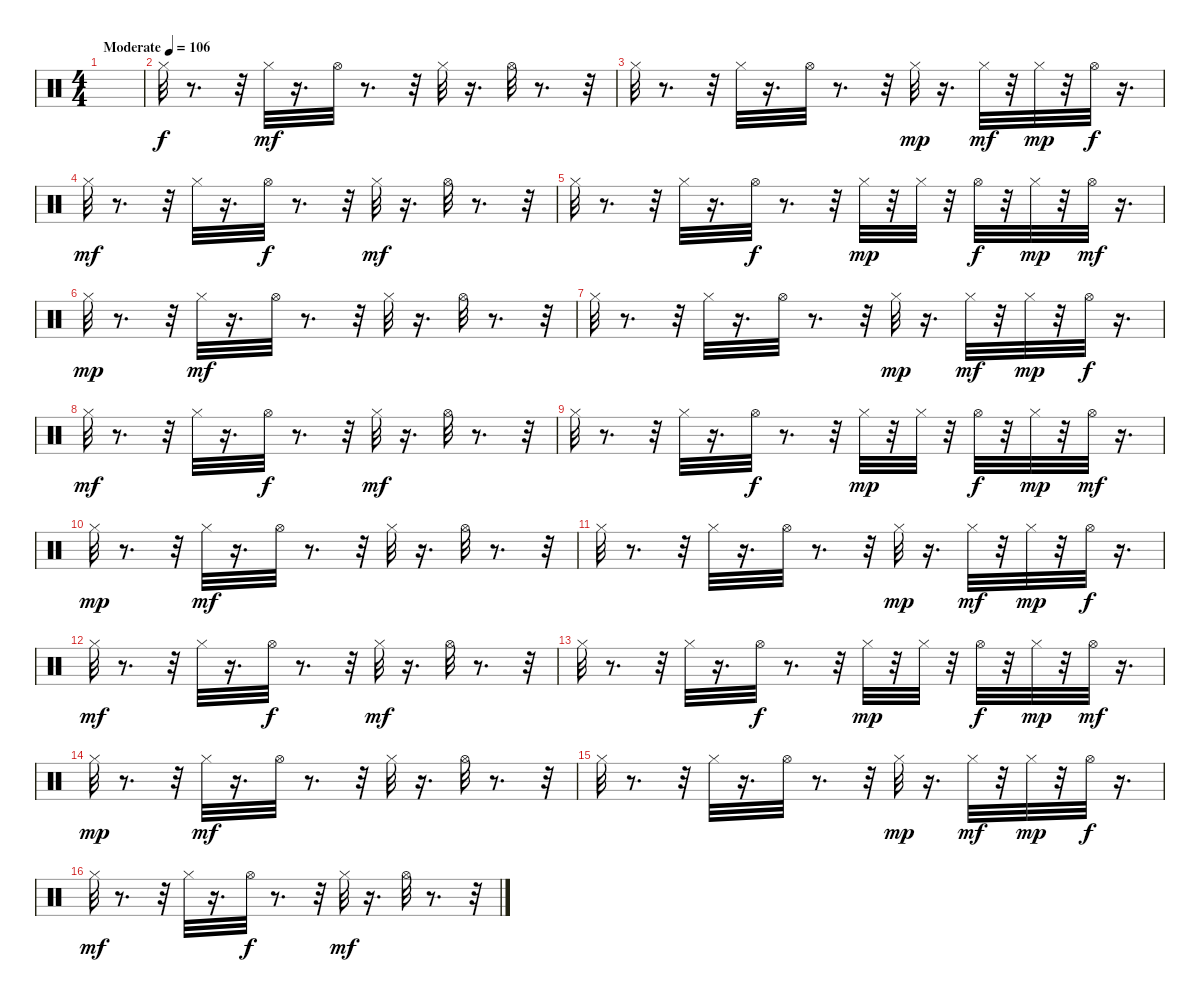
\track "" {instrument percussion}
\staff {score}
\articulation defaults
\ts (4 4)
\tempo (106 "Moderate")
\clef neutral
\ks c
|
"Hi-Hat (closed)".32 r.8{d} r.32 "Hi-Hat (closed)".32{dy mf} r.16{d} "Hi-Hat (open)".32 r.8{d} r.32 "Hi-Hat (closed)".32 r.16{d} "Hi-Hat (open)".32 r.8{d} r.32 |
"Hi-Hat (closed)".32 r.8{d} r.32 "Hi-Hat (closed)".32 r.16{d} "Hi-Hat (open)".32 r.8{d} r.32 "Hi-Hat (closed)".32{dy mp} r.16{d} "Hi-Hat (closed)".32{dy mf} r.32 "Hi-Hat (closed)".32{dy mp} r.32 "Hi-Hat (open)".32{dy f} r.16{d} |
"Hi-Hat (closed)".32{dy mf} r.8{d} r.32 "Hi-Hat (closed)".32 r.16{d} "Hi-Hat (open)".32{dy f} r.8{d} r.32 "Hi-Hat (closed)".32{dy mf} r.16{d} "Hi-Hat (open)".32 r.8{d} r.32 |
"Hi-Hat (closed)".32 r.8{d} r.32 "Hi-Hat (closed)".32 r.16{d} "Hi-Hat (open)".32{dy f} r.8{d} r.32 "Hi-Hat (closed)".32{dy mp} r.32 "Hi-Hat (closed)".32 r.32 "Hi-Hat (open)".32{dy f} r.32 "Hi-Hat (closed)".32{dy mp} r.32 "Hi-Hat (open)".32{dy mf} r.16{d} |
"Hi-Hat (closed)".32{dy mp} r.8{d} r.32 "Hi-Hat (closed)".32{dy mf} r.16{d} "Hi-Hat (open)".32 r.8{d} r.32 "Hi-Hat (closed)".32 r.16{d} "Hi-Hat (open)".32 r.8{d} r.32 |
"Hi-Hat (closed)".32 r.8{d} r.32 "Hi-Hat (closed)".32 r.16{d} "Hi-Hat (open)".32 r.8{d} r.32 "Hi-Hat (closed)".32{dy mp} r.16{d} "Hi-Hat (closed)".32{dy mf} r.32 "Hi-Hat (closed)".32{dy mp} r.32 "Hi-Hat (open)".32{dy f} r.16{d} |
"Hi-Hat (closed)".32{dy mf} r.8{d} r.32 "Hi-Hat (closed)".32 r.16{d} "Hi-Hat (open)".32{dy f} r.8{d} r.32 "Hi-Hat (closed)".32{dy mf} r.16{d} "Hi-Hat (open)".32 r.8{d} r.32 |
"Hi-Hat (closed)".32 r.8{d} r.32 "Hi-Hat (closed)".32 r.16{d} "Hi-Hat (open)".32{dy f} r.8{d} r.32 "Hi-Hat (closed)".32{dy mp} r.32 "Hi-Hat (closed)".32 r.32 "Hi-Hat (open)".32{dy f} r.32 "Hi-Hat (closed)".32{dy mp} r.32 "Hi-Hat (open)".32{dy mf} r.16{d} |
"Hi-Hat (closed)".32{dy mp} r.8{d} r.32 "Hi-Hat (closed)".32{dy mf} r.16{d} "Hi-Hat (open)".32 r.8{d} r.32 "Hi-Hat (closed)".32 r.16{d} "Hi-Hat (open)".32 r.8{d} r.32 |
"Hi-Hat (closed)".32 r.8{d} r.32 "Hi-Hat (closed)".32 r.16{d} "Hi-Hat (open)".32 r.8{d} r.32 "Hi-Hat (closed)".32{dy mp} r.16{d} "Hi-Hat (closed)".32{dy mf} r.32 "Hi-Hat (closed)".32{dy mp} r.32 "Hi-Hat (open)".32{dy f} r.16{d} |
"Hi-Hat (closed)".32{dy mf} r.8{d} r.32 "Hi-Hat (closed)".32 r.16{d} "Hi-Hat (open)".32{dy f} r.8{d} r.32 "Hi-Hat (closed)".32{dy mf} r.16{d} "Hi-Hat (open)".32 r.8{d} r.32 |
"Hi-Hat (closed)".32 r.8{d} r.32 "Hi-Hat (closed)".32 r.16{d} "Hi-Hat (open)".32{dy f} r.8{d} r.32 "Hi-Hat (closed)".32{dy mp} r.32 "Hi-Hat (closed)".32 r.32 "Hi-Hat (open)".32{dy f} r.32 "Hi-Hat (closed)".32{dy mp} r.32 "Hi-Hat (open)".32{dy mf} r.16{d} |
"Hi-Hat (closed)".32{dy mp} r.8{d} r.32 "Hi-Hat (closed)".32{dy mf} r.16{d} "Hi-Hat (open)".32 r.8{d} r.32 "Hi-Hat (closed)".32 r.16{d} "Hi-Hat (open)".32 r.8{d} r.32 |
"Hi-Hat (closed)".32 r.8{d} r.32 "Hi-Hat (closed)".32 r.16{d} "Hi-Hat (open)".32 r.8{d} r.32 "Hi-Hat (closed)".32{dy mp} r.16{d} "Hi-Hat (closed)".32{dy mf} r.32 "Hi-Hat (closed)".32{dy mp} r.32 "Hi-Hat (open)".32{dy f} r.16{d} |
"Hi-Hat (closed)".32{dy mf} r.8{d} r.32 "Hi-Hat (closed)".32 r.16{d} "Hi-Hat (open)".32{dy f} r.8{d} r.32 "Hi-Hat (closed)".32{dy mf} r.16{d} "Hi-Hat (open)".32 r.8{d} r.32
